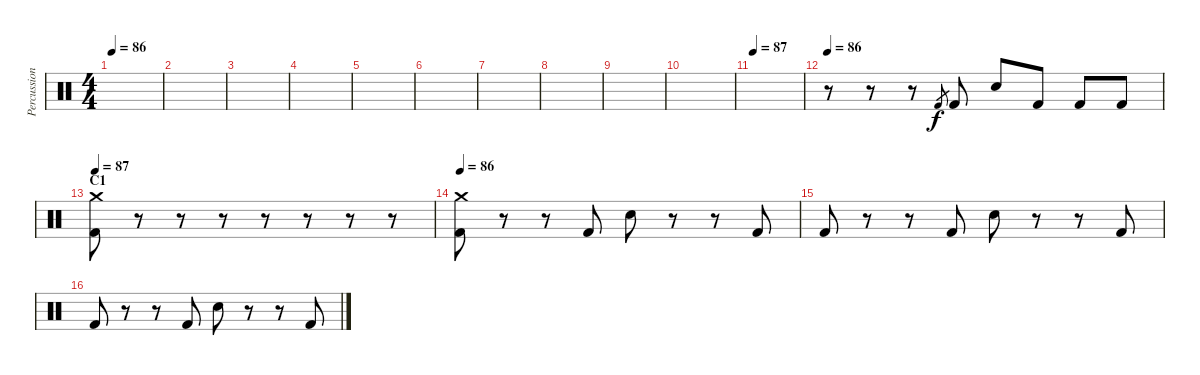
\track ("Percussion" "Percussion") {instrument percussion}
\staff {score}
\articulation defaults
\ts (4 4)
\tempo 86
\clef neutral
\ks c
|
|
|
|
|
|
|
|
|
|
\tempo 87
|
\tempo 86
r.8 r.8 r.8 "Kick (hit) 2".8{gr} "Kick (hit) 2".8 "Electric Snare (hit)".8 "Kick (hit) 2".8 "Kick (hit) 2".8 "Kick (hit) 2".8 |
\section ("" "C1")
\tempo 87
("Kick (hit) 2" "Crash medium (hit)").8 r.8 r.8 r.8 r.8 r.8 r.8 r.8 |
\tempo 86
("Kick (hit) 2" "Crash medium (hit)").8 r.8 r.8 "Kick (hit) 2".8 "Electric Snare (hit)".8 r.8 r.8 "Kick (hit) 2".8 |
"Kick (hit) 2".8 r.8 r.8 "Kick (hit) 2".8 "Electric Snare (hit)".8 r.8 r.8 "Kick (hit) 2".8 |
"Kick (hit) 2".8 r.8 r.8 "Kick (hit) 2".8 "Electric Snare (hit)".8 r.8 r.8 "Kick (hit) 2".8
